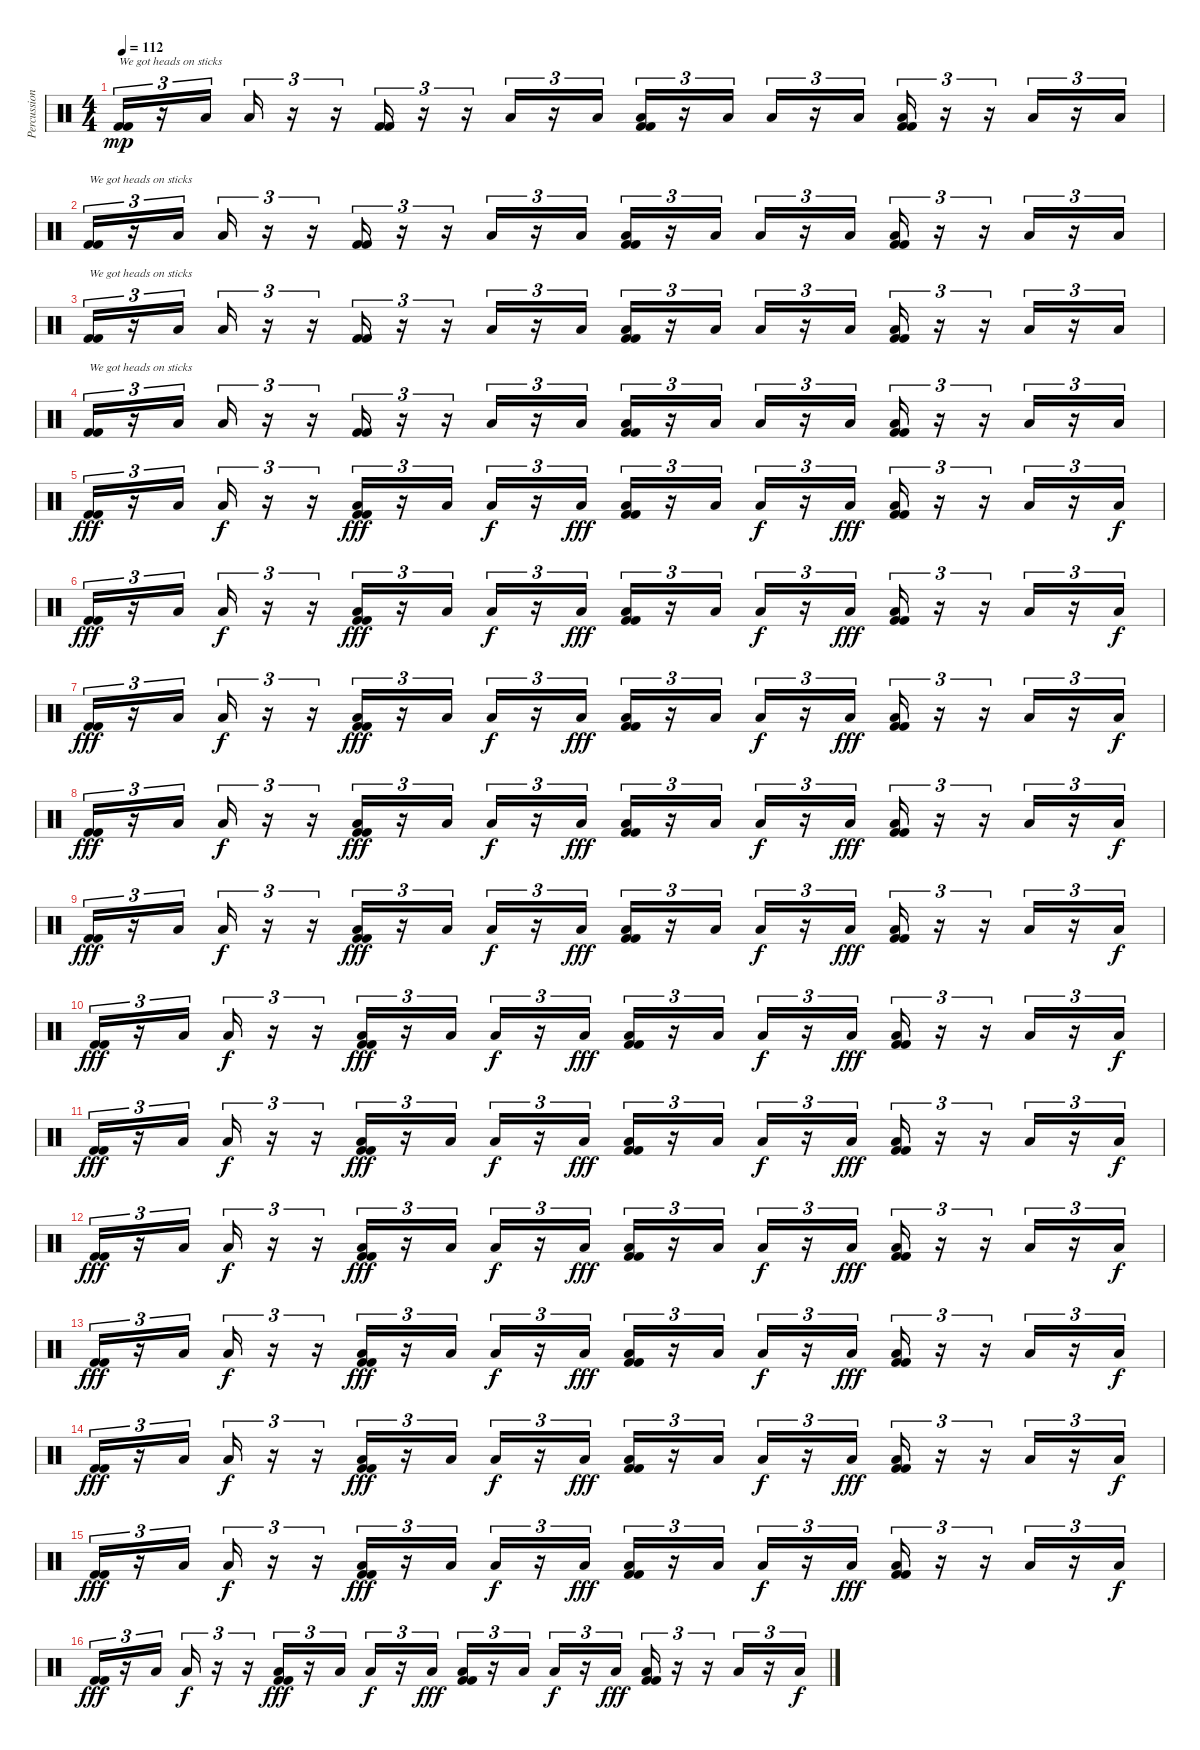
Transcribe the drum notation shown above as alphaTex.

\track ("Percussion" "Percussion") {instrument percussion}
\staff {score}
\articulation defaults
\ts (4 4)
\tempo 112
\clef neutral
\ks c
("Kick (hit) 2" "Kick (hit) 2").16{tu (3 2) txt "We got heads on sticks" dy mp} r.16{tu (3 2)} "Low Floor Tom (hit)".16{tu (3 2)} "Low Floor Tom (hit)".16{tu (3 2)} r.16{tu (3 2)} r.16{tu (3 2)} ("Kick (hit) 2" "Kick (hit) 2").16{tu (3 2)} r.16{tu (3 2)} r.16{tu (3 2)} "Low Floor Tom (hit)".16{tu (3 2)} r.16{tu (3 2)} "Low Floor Tom (hit)".16{tu (3 2)} ("Kick (hit) 2" "Kick (hit) 2" "Low Floor Tom (hit)").16{tu (3 2)} r.16{tu (3 2)} "Low Floor Tom (hit)".16{tu (3 2)} "Low Floor Tom (hit)".16{tu (3 2)} r.16{tu (3 2)} "Low Floor Tom (hit)".16{tu (3 2)} ("Kick (hit) 2" "Kick (hit) 2" "Low Floor Tom (hit)").16{tu (3 2)} r.16{tu (3 2)} r.16{tu (3 2)} "Low Floor Tom (hit)".16{tu (3 2)} r.16{tu (3 2)} "Low Floor Tom (hit)".16{tu (3 2)} |
("Kick (hit) 2" "Kick (hit) 2").16{tu (3 2) txt "We got heads on sticks"} r.16{tu (3 2)} "Low Floor Tom (hit)".16{tu (3 2)} "Low Floor Tom (hit)".16{tu (3 2)} r.16{tu (3 2)} r.16{tu (3 2)} ("Kick (hit) 2" "Kick (hit) 2").16{tu (3 2)} r.16{tu (3 2)} r.16{tu (3 2)} "Low Floor Tom (hit)".16{tu (3 2)} r.16{tu (3 2)} "Low Floor Tom (hit)".16{tu (3 2)} ("Kick (hit) 2" "Kick (hit) 2" "Low Floor Tom (hit)").16{tu (3 2)} r.16{tu (3 2)} "Low Floor Tom (hit)".16{tu (3 2)} "Low Floor Tom (hit)".16{tu (3 2)} r.16{tu (3 2)} "Low Floor Tom (hit)".16{tu (3 2)} ("Kick (hit) 2" "Kick (hit) 2" "Low Floor Tom (hit)").16{tu (3 2)} r.16{tu (3 2)} r.16{tu (3 2)} "Low Floor Tom (hit)".16{tu (3 2)} r.16{tu (3 2)} "Low Floor Tom (hit)".16{tu (3 2)} |
("Kick (hit) 2" "Kick (hit) 2").16{tu (3 2) txt "We got heads on sticks"} r.16{tu (3 2)} "Low Floor Tom (hit)".16{tu (3 2)} "Low Floor Tom (hit)".16{tu (3 2)} r.16{tu (3 2)} r.16{tu (3 2)} ("Kick (hit) 2" "Kick (hit) 2").16{tu (3 2)} r.16{tu (3 2)} r.16{tu (3 2)} "Low Floor Tom (hit)".16{tu (3 2)} r.16{tu (3 2)} "Low Floor Tom (hit)".16{tu (3 2)} ("Kick (hit) 2" "Kick (hit) 2" "Low Floor Tom (hit)").16{tu (3 2)} r.16{tu (3 2)} "Low Floor Tom (hit)".16{tu (3 2)} "Low Floor Tom (hit)".16{tu (3 2)} r.16{tu (3 2)} "Low Floor Tom (hit)".16{tu (3 2)} ("Kick (hit) 2" "Kick (hit) 2" "Low Floor Tom (hit)").16{tu (3 2)} r.16{tu (3 2)} r.16{tu (3 2)} "Low Floor Tom (hit)".16{tu (3 2)} r.16{tu (3 2)} "Low Floor Tom (hit)".16{tu (3 2)} |
("Kick (hit) 2" "Kick (hit) 2").16{tu (3 2) txt "We got heads on sticks"} r.16{tu (3 2)} "Low Floor Tom (hit)".16{tu (3 2)} "Low Floor Tom (hit)".16{tu (3 2)} r.16{tu (3 2)} r.16{tu (3 2)} ("Kick (hit) 2" "Kick (hit) 2").16{tu (3 2)} r.16{tu (3 2)} r.16{tu (3 2)} "Low Floor Tom (hit)".16{tu (3 2)} r.16{tu (3 2)} "Low Floor Tom (hit)".16{tu (3 2)} ("Kick (hit) 2" "Kick (hit) 2" "Low Floor Tom (hit)").16{tu (3 2)} r.16{tu (3 2)} "Low Floor Tom (hit)".16{tu (3 2)} "Low Floor Tom (hit)".16{tu (3 2)} r.16{tu (3 2)} "Low Floor Tom (hit)".16{tu (3 2)} ("Kick (hit) 2" "Kick (hit) 2" "Low Floor Tom (hit)").16{tu (3 2)} r.16{tu (3 2)} r.16{tu (3 2)} "Low Floor Tom (hit)".16{tu (3 2)} r.16{tu (3 2)} "Low Floor Tom (hit)".16{tu (3 2)} |
("Kick (hit) 2" "Kick (hit) 2").16{tu (3 2) dy fff} r.16{tu (3 2)} "Low Floor Tom (hit)".16{tu (3 2)} "Low Floor Tom (hit)".16{tu (3 2) dy f} r.16{tu (3 2)} r.16{tu (3 2)} ("Kick (hit) 2" "Kick (hit) 2" "Low Floor Tom (hit)").16{tu (3 2) dy fff} r.16{tu (3 2)} "Low Floor Tom (hit)".16{tu (3 2)} "Low Floor Tom (hit)".16{tu (3 2) dy f} r.16{tu (3 2)} "Low Floor Tom (hit)".16{tu (3 2) dy fff} ("Kick (hit) 2" "Kick (hit) 2" "Low Floor Tom (hit)").16{tu (3 2)} r.16{tu (3 2)} "Low Floor Tom (hit)".16{tu (3 2)} "Low Floor Tom (hit)".16{tu (3 2) dy f} r.16{tu (3 2)} "Low Floor Tom (hit)".16{tu (3 2) dy fff} ("Kick (hit) 2" "Kick (hit) 2" "Low Floor Tom (hit)").16{tu (3 2)} r.16{tu (3 2)} r.16{tu (3 2)} "Low Floor Tom (hit)".16{tu (3 2)} r.16{tu (3 2)} "Low Floor Tom (hit)".16{tu (3 2) dy f} |
("Kick (hit) 2" "Kick (hit) 2").16{tu (3 2) dy fff} r.16{tu (3 2)} "Low Floor Tom (hit)".16{tu (3 2)} "Low Floor Tom (hit)".16{tu (3 2) dy f} r.16{tu (3 2)} r.16{tu (3 2)} ("Kick (hit) 2" "Kick (hit) 2" "Low Floor Tom (hit)").16{tu (3 2) dy fff} r.16{tu (3 2)} "Low Floor Tom (hit)".16{tu (3 2)} "Low Floor Tom (hit)".16{tu (3 2) dy f} r.16{tu (3 2)} "Low Floor Tom (hit)".16{tu (3 2) dy fff} ("Kick (hit) 2" "Kick (hit) 2" "Low Floor Tom (hit)").16{tu (3 2)} r.16{tu (3 2)} "Low Floor Tom (hit)".16{tu (3 2)} "Low Floor Tom (hit)".16{tu (3 2) dy f} r.16{tu (3 2)} "Low Floor Tom (hit)".16{tu (3 2) dy fff} ("Kick (hit) 2" "Kick (hit) 2" "Low Floor Tom (hit)").16{tu (3 2)} r.16{tu (3 2)} r.16{tu (3 2)} "Low Floor Tom (hit)".16{tu (3 2)} r.16{tu (3 2)} "Low Floor Tom (hit)".16{tu (3 2) dy f} |
("Kick (hit) 2" "Kick (hit) 2").16{tu (3 2) dy fff} r.16{tu (3 2)} "Low Floor Tom (hit)".16{tu (3 2)} "Low Floor Tom (hit)".16{tu (3 2) dy f} r.16{tu (3 2)} r.16{tu (3 2)} ("Kick (hit) 2" "Kick (hit) 2" "Low Floor Tom (hit)").16{tu (3 2) dy fff} r.16{tu (3 2)} "Low Floor Tom (hit)".16{tu (3 2)} "Low Floor Tom (hit)".16{tu (3 2) dy f} r.16{tu (3 2)} "Low Floor Tom (hit)".16{tu (3 2) dy fff} ("Kick (hit) 2" "Kick (hit) 2" "Low Floor Tom (hit)").16{tu (3 2)} r.16{tu (3 2)} "Low Floor Tom (hit)".16{tu (3 2)} "Low Floor Tom (hit)".16{tu (3 2) dy f} r.16{tu (3 2)} "Low Floor Tom (hit)".16{tu (3 2) dy fff} ("Kick (hit) 2" "Kick (hit) 2" "Low Floor Tom (hit)").16{tu (3 2)} r.16{tu (3 2)} r.16{tu (3 2)} "Low Floor Tom (hit)".16{tu (3 2)} r.16{tu (3 2)} "Low Floor Tom (hit)".16{tu (3 2) dy f} |
("Kick (hit) 2" "Kick (hit) 2").16{tu (3 2) dy fff} r.16{tu (3 2)} "Low Floor Tom (hit)".16{tu (3 2)} "Low Floor Tom (hit)".16{tu (3 2) dy f} r.16{tu (3 2)} r.16{tu (3 2)} ("Kick (hit) 2" "Kick (hit) 2" "Low Floor Tom (hit)").16{tu (3 2) dy fff} r.16{tu (3 2)} "Low Floor Tom (hit)".16{tu (3 2)} "Low Floor Tom (hit)".16{tu (3 2) dy f} r.16{tu (3 2)} "Low Floor Tom (hit)".16{tu (3 2) dy fff} ("Kick (hit) 2" "Kick (hit) 2" "Low Floor Tom (hit)").16{tu (3 2)} r.16{tu (3 2)} "Low Floor Tom (hit)".16{tu (3 2)} "Low Floor Tom (hit)".16{tu (3 2) dy f} r.16{tu (3 2)} "Low Floor Tom (hit)".16{tu (3 2) dy fff} ("Kick (hit) 2" "Kick (hit) 2" "Low Floor Tom (hit)").16{tu (3 2)} r.16{tu (3 2)} r.16{tu (3 2)} "Low Floor Tom (hit)".16{tu (3 2)} r.16{tu (3 2)} "Low Floor Tom (hit)".16{tu (3 2) dy f} |
("Kick (hit) 2" "Kick (hit) 2").16{tu (3 2) dy fff} r.16{tu (3 2)} "Low Floor Tom (hit)".16{tu (3 2)} "Low Floor Tom (hit)".16{tu (3 2) dy f} r.16{tu (3 2)} r.16{tu (3 2)} ("Kick (hit) 2" "Kick (hit) 2" "Low Floor Tom (hit)").16{tu (3 2) dy fff} r.16{tu (3 2)} "Low Floor Tom (hit)".16{tu (3 2)} "Low Floor Tom (hit)".16{tu (3 2) dy f} r.16{tu (3 2)} "Low Floor Tom (hit)".16{tu (3 2) dy fff} ("Kick (hit) 2" "Kick (hit) 2" "Low Floor Tom (hit)").16{tu (3 2)} r.16{tu (3 2)} "Low Floor Tom (hit)".16{tu (3 2)} "Low Floor Tom (hit)".16{tu (3 2) dy f} r.16{tu (3 2)} "Low Floor Tom (hit)".16{tu (3 2) dy fff} ("Kick (hit) 2" "Kick (hit) 2" "Low Floor Tom (hit)").16{tu (3 2)} r.16{tu (3 2)} r.16{tu (3 2)} "Low Floor Tom (hit)".16{tu (3 2)} r.16{tu (3 2)} "Low Floor Tom (hit)".16{tu (3 2) dy f} |
("Kick (hit) 2" "Kick (hit) 2").16{tu (3 2) dy fff} r.16{tu (3 2)} "Low Floor Tom (hit)".16{tu (3 2)} "Low Floor Tom (hit)".16{tu (3 2) dy f} r.16{tu (3 2)} r.16{tu (3 2)} ("Kick (hit) 2" "Kick (hit) 2" "Low Floor Tom (hit)").16{tu (3 2) dy fff} r.16{tu (3 2)} "Low Floor Tom (hit)".16{tu (3 2)} "Low Floor Tom (hit)".16{tu (3 2) dy f} r.16{tu (3 2)} "Low Floor Tom (hit)".16{tu (3 2) dy fff} ("Kick (hit) 2" "Kick (hit) 2" "Low Floor Tom (hit)").16{tu (3 2)} r.16{tu (3 2)} "Low Floor Tom (hit)".16{tu (3 2)} "Low Floor Tom (hit)".16{tu (3 2) dy f} r.16{tu (3 2)} "Low Floor Tom (hit)".16{tu (3 2) dy fff} ("Kick (hit) 2" "Kick (hit) 2" "Low Floor Tom (hit)").16{tu (3 2)} r.16{tu (3 2)} r.16{tu (3 2)} "Low Floor Tom (hit)".16{tu (3 2)} r.16{tu (3 2)} "Low Floor Tom (hit)".16{tu (3 2) dy f} |
("Kick (hit) 2" "Kick (hit) 2").16{tu (3 2) dy fff} r.16{tu (3 2)} "Low Floor Tom (hit)".16{tu (3 2)} "Low Floor Tom (hit)".16{tu (3 2) dy f} r.16{tu (3 2)} r.16{tu (3 2)} ("Kick (hit) 2" "Kick (hit) 2" "Low Floor Tom (hit)").16{tu (3 2) dy fff} r.16{tu (3 2)} "Low Floor Tom (hit)".16{tu (3 2)} "Low Floor Tom (hit)".16{tu (3 2) dy f} r.16{tu (3 2)} "Low Floor Tom (hit)".16{tu (3 2) dy fff} ("Kick (hit) 2" "Kick (hit) 2" "Low Floor Tom (hit)").16{tu (3 2)} r.16{tu (3 2)} "Low Floor Tom (hit)".16{tu (3 2)} "Low Floor Tom (hit)".16{tu (3 2) dy f} r.16{tu (3 2)} "Low Floor Tom (hit)".16{tu (3 2) dy fff} ("Kick (hit) 2" "Kick (hit) 2" "Low Floor Tom (hit)").16{tu (3 2)} r.16{tu (3 2)} r.16{tu (3 2)} "Low Floor Tom (hit)".16{tu (3 2)} r.16{tu (3 2)} "Low Floor Tom (hit)".16{tu (3 2) dy f} |
("Kick (hit) 2" "Kick (hit) 2").16{tu (3 2) dy fff} r.16{tu (3 2)} "Low Floor Tom (hit)".16{tu (3 2)} "Low Floor Tom (hit)".16{tu (3 2) dy f} r.16{tu (3 2)} r.16{tu (3 2)} ("Kick (hit) 2" "Kick (hit) 2" "Low Floor Tom (hit)").16{tu (3 2) dy fff} r.16{tu (3 2)} "Low Floor Tom (hit)".16{tu (3 2)} "Low Floor Tom (hit)".16{tu (3 2) dy f} r.16{tu (3 2)} "Low Floor Tom (hit)".16{tu (3 2) dy fff} ("Kick (hit) 2" "Kick (hit) 2" "Low Floor Tom (hit)").16{tu (3 2)} r.16{tu (3 2)} "Low Floor Tom (hit)".16{tu (3 2)} "Low Floor Tom (hit)".16{tu (3 2) dy f} r.16{tu (3 2)} "Low Floor Tom (hit)".16{tu (3 2) dy fff} ("Kick (hit) 2" "Kick (hit) 2" "Low Floor Tom (hit)").16{tu (3 2)} r.16{tu (3 2)} r.16{tu (3 2)} "Low Floor Tom (hit)".16{tu (3 2)} r.16{tu (3 2)} "Low Floor Tom (hit)".16{tu (3 2) dy f} |
("Kick (hit) 2" "Kick (hit) 2").16{tu (3 2) dy fff} r.16{tu (3 2)} "Low Floor Tom (hit)".16{tu (3 2)} "Low Floor Tom (hit)".16{tu (3 2) dy f} r.16{tu (3 2)} r.16{tu (3 2)} ("Kick (hit) 2" "Kick (hit) 2" "Low Floor Tom (hit)").16{tu (3 2) dy fff} r.16{tu (3 2)} "Low Floor Tom (hit)".16{tu (3 2)} "Low Floor Tom (hit)".16{tu (3 2) dy f} r.16{tu (3 2)} "Low Floor Tom (hit)".16{tu (3 2) dy fff} ("Kick (hit) 2" "Kick (hit) 2" "Low Floor Tom (hit)").16{tu (3 2)} r.16{tu (3 2)} "Low Floor Tom (hit)".16{tu (3 2)} "Low Floor Tom (hit)".16{tu (3 2) dy f} r.16{tu (3 2)} "Low Floor Tom (hit)".16{tu (3 2) dy fff} ("Kick (hit) 2" "Kick (hit) 2" "Low Floor Tom (hit)").16{tu (3 2)} r.16{tu (3 2)} r.16{tu (3 2)} "Low Floor Tom (hit)".16{tu (3 2)} r.16{tu (3 2)} "Low Floor Tom (hit)".16{tu (3 2) dy f} |
("Kick (hit) 2" "Kick (hit) 2").16{tu (3 2) dy fff} r.16{tu (3 2)} "Low Floor Tom (hit)".16{tu (3 2)} "Low Floor Tom (hit)".16{tu (3 2) dy f} r.16{tu (3 2)} r.16{tu (3 2)} ("Kick (hit) 2" "Kick (hit) 2" "Low Floor Tom (hit)").16{tu (3 2) dy fff} r.16{tu (3 2)} "Low Floor Tom (hit)".16{tu (3 2)} "Low Floor Tom (hit)".16{tu (3 2) dy f} r.16{tu (3 2)} "Low Floor Tom (hit)".16{tu (3 2) dy fff} ("Kick (hit) 2" "Kick (hit) 2" "Low Floor Tom (hit)").16{tu (3 2)} r.16{tu (3 2)} "Low Floor Tom (hit)".16{tu (3 2)} "Low Floor Tom (hit)".16{tu (3 2) dy f} r.16{tu (3 2)} "Low Floor Tom (hit)".16{tu (3 2) dy fff} ("Kick (hit) 2" "Kick (hit) 2" "Low Floor Tom (hit)").16{tu (3 2)} r.16{tu (3 2)} r.16{tu (3 2)} "Low Floor Tom (hit)".16{tu (3 2)} r.16{tu (3 2)} "Low Floor Tom (hit)".16{tu (3 2) dy f} |
("Kick (hit) 2" "Kick (hit) 2").16{tu (3 2) dy fff} r.16{tu (3 2)} "Low Floor Tom (hit)".16{tu (3 2)} "Low Floor Tom (hit)".16{tu (3 2) dy f} r.16{tu (3 2)} r.16{tu (3 2)} ("Kick (hit) 2" "Kick (hit) 2" "Low Floor Tom (hit)").16{tu (3 2) dy fff} r.16{tu (3 2)} "Low Floor Tom (hit)".16{tu (3 2)} "Low Floor Tom (hit)".16{tu (3 2) dy f} r.16{tu (3 2)} "Low Floor Tom (hit)".16{tu (3 2) dy fff} ("Kick (hit) 2" "Kick (hit) 2" "Low Floor Tom (hit)").16{tu (3 2)} r.16{tu (3 2)} "Low Floor Tom (hit)".16{tu (3 2)} "Low Floor Tom (hit)".16{tu (3 2) dy f} r.16{tu (3 2)} "Low Floor Tom (hit)".16{tu (3 2) dy fff} ("Kick (hit) 2" "Kick (hit) 2" "Low Floor Tom (hit)").16{tu (3 2)} r.16{tu (3 2)} r.16{tu (3 2)} "Low Floor Tom (hit)".16{tu (3 2)} r.16{tu (3 2)} "Low Floor Tom (hit)".16{tu (3 2) dy f} |
("Kick (hit) 2" "Kick (hit) 2").16{tu (3 2) dy fff} r.16{tu (3 2)} "Low Floor Tom (hit)".16{tu (3 2)} "Low Floor Tom (hit)".16{tu (3 2) dy f} r.16{tu (3 2)} r.16{tu (3 2)} ("Kick (hit) 2" "Kick (hit) 2" "Low Floor Tom (hit)").16{tu (3 2) dy fff} r.16{tu (3 2)} "Low Floor Tom (hit)".16{tu (3 2)} "Low Floor Tom (hit)".16{tu (3 2) dy f} r.16{tu (3 2)} "Low Floor Tom (hit)".16{tu (3 2) dy fff} ("Kick (hit) 2" "Kick (hit) 2" "Low Floor Tom (hit)").16{tu (3 2)} r.16{tu (3 2)} "Low Floor Tom (hit)".16{tu (3 2)} "Low Floor Tom (hit)".16{tu (3 2) dy f} r.16{tu (3 2)} "Low Floor Tom (hit)".16{tu (3 2) dy fff} ("Kick (hit) 2" "Kick (hit) 2" "Low Floor Tom (hit)").16{tu (3 2)} r.16{tu (3 2)} r.16{tu (3 2)} "Low Floor Tom (hit)".16{tu (3 2)} r.16{tu (3 2)} "Low Floor Tom (hit)".16{tu (3 2) dy f}
